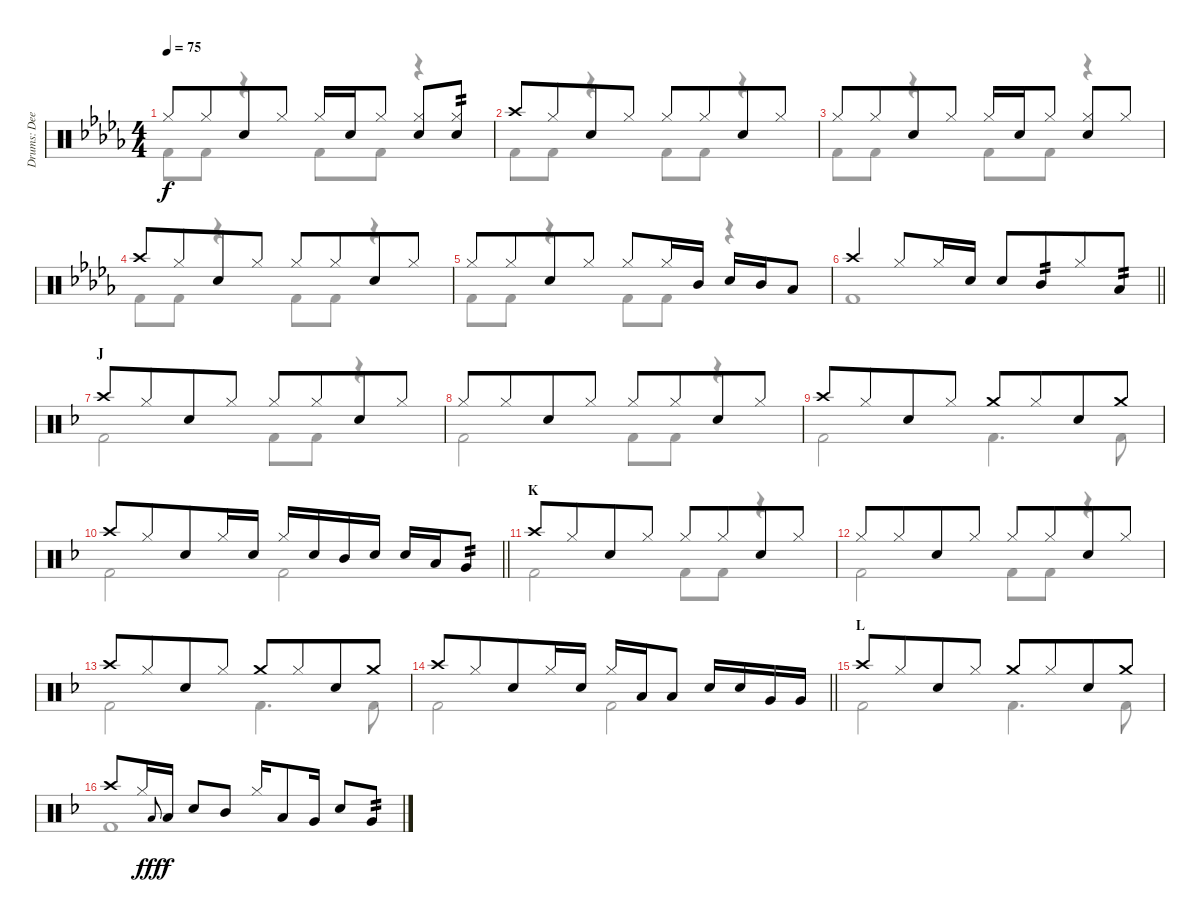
\track ("Drums: Deen" "Drums: Dee") {instrument percussion}
\staff {score}
\articulation defaults
\voice
\ts (4 4)
\tempo 75
\clef neutral
\ks db "Hi-Hat (closed)".8{dy f} "Hi-Hat (closed)".8{beam merge} "Snare (hit) 2".8 "Hi-Hat (closed)".8 "Hi-Hat (closed)".16{beam merge} "Snare (hit) 2".16 "Hi-Hat (closed)".8
("Hi-Hat (closed)" "Snare (hit) 2").8 ("Hi-Hat (closed)" "Snare (hit) 2").8{tp 2} |
"Crash high (hit)".8 "Hi-Hat (closed)".8{beam merge} "Snare (hit) 2".8 "Hi-Hat (closed)".8 "Hi-Hat (closed)".8 "Hi-Hat (closed)".8{beam merge} "Snare (hit) 2".8 "Hi-Hat (closed)".8 |
"Hi-Hat (closed)".8 "Hi-Hat (closed)".8{beam merge} "Snare (hit) 2".8 "Hi-Hat (closed)".8 "Hi-Hat (closed)".16{beam merge} "Snare (hit) 2".16 "Hi-Hat (closed)".8 ("Hi-Hat (closed)" "Snare (hit) 2").8 "Hi-Hat (closed)".8 |
"Crash high (hit)".8 "Hi-Hat (closed)".8{beam merge} "Snare (hit) 2".8 "Hi-Hat (closed)".8 "Hi-Hat (closed)".8 "Hi-Hat (closed)".8{beam merge} "Snare (hit) 2".8 "Hi-Hat (closed)".8 |
"Hi-Hat (closed)".8 "Hi-Hat (closed)".8{beam merge} "Snare (hit) 2".8 "Hi-Hat (closed)".8 "Hi-Hat (closed)".8{beam merge} "Hi-Hat (closed)".16 "Mid Tom (hit)".16 "Snare (hit) 2".16 "Mid Tom (hit)".16 "Low Tom (hit)".8 |
\barLineRight lightlight "Crash high (hit)".4 "Hi-Hat (closed)".8 "Hi-Hat (closed)".16 "Snare (hit) 2".16 "Snare (hit) 2".8 "Mid Tom (hit)".8{tp 2 beam merge} "Hi-Hat (closed)".8 "Low Tom (hit)".8{tp 2}
|
\section ("" "J")
\ks f "Crash high (hit)".8 "Hi-Hat (closed)".8{beam merge} "Snare (hit) 2".8 "Hi-Hat (closed)".8 "Hi-Hat (closed)".8 "Hi-Hat (closed)".8{beam merge} "Snare (hit) 2".8 "Hi-Hat (closed)".8
|
"Hi-Hat (closed)".8 "Hi-Hat (closed)".8{beam merge} "Snare (hit) 2".8 "Hi-Hat (closed)".8 "Hi-Hat (closed)".8 "Hi-Hat (closed)".8{beam merge} "Snare (hit) 2".8 "Hi-Hat (closed)".8 |
"Crash high (hit)".8 "Hi-Hat (closed)".8{beam merge} "Snare (hit) 2".8 "Hi-Hat (closed)".8 "Crash medium (hit)".8 "Hi-Hat (closed)".8{beam merge} "Snare (hit) 2".8 "Crash medium (hit)".8 |
\barLineRight lightlight "Crash high (hit)".8 "Hi-Hat (closed)".8{beam merge} "Snare (hit) 2".8 "Hi-Hat (closed)".16{beam merge} "Snare (hit) 2".16 "Hi-Hat (closed)".16 "Snare (hit) 2".16 "Mid Tom (hit)".16 "Snare (hit) 2".16 "Snare (hit) 2".16 "Low Tom (hit)".16 "Very Low Tom (hit)".8{tp 2}
|
\section ("" "K")
"Crash high (hit)".8 "Hi-Hat (closed)".8{beam merge} "Snare (hit) 2".8 "Hi-Hat (closed)".8 "Hi-Hat (closed)".8 "Hi-Hat (closed)".8{beam merge} "Snare (hit) 2".8 "Hi-Hat (closed)".8 |
"Hi-Hat (closed)".8 "Hi-Hat (closed)".8{beam merge} "Snare (hit) 2".8 "Hi-Hat (closed)".8 "Hi-Hat (closed)".8 "Hi-Hat (closed)".8{beam merge} "Snare (hit) 2".8 "Hi-Hat (closed)".8 |
"Crash high (hit)".8 "Hi-Hat (closed)".8{beam merge} "Snare (hit) 2".8 "Hi-Hat (closed)".8 "Crash medium (hit)".8 "Hi-Hat (closed)".8{beam merge} "Snare (hit) 2".8 "Crash medium (hit)".8 |
\barLineRight lightlight "Crash high (hit)".8 "Hi-Hat (closed)".8{beam merge} "Snare (hit) 2".8 "Hi-Hat (closed)".16{beam merge} "Snare (hit) 2".16 "Hi-Hat (closed)".16 "Low Tom (hit)".16 "Low Tom (hit)".8 "Snare (hit) 2".16 "Snare (hit) 2".16 "Very Low Tom (hit)".16 "Very Low Tom (hit)".16
|
\section ("" "L")
"Crash high (hit)".8 "Hi-Hat (closed)".8{beam merge} "Snare (hit) 2".8 "Hi-Hat (closed)".8 "Crash medium (hit)".8 "Hi-Hat (closed)".8{beam merge} "Snare (hit) 2".8 "Crash medium (hit)".8 |
"Crash high (hit)".8 "Hi-Hat (closed)".16 "Low Tom (hit)".8{gr onbeat dy fff beam merge} "Low Tom (hit)".16{dy f} "Snare (hit) 2".8{beam merge} "Mid Tom (hit)".8 "Hi-Hat (closed)".16 "Low Tom (hit)".8 "Very Low Tom (hit)".16 "Snare (hit) 2".8 "Very Low Tom (hit)".8{tp 2}
\voice
\clef neutral
\ottava regular
\simile none
\ks db "Kick (hit) 2".8{dy f} "Kick (hit) 2".8
r.4 "Kick (hit) 2".8 "Kick (hit) 2".8 r.4 |
"Kick (hit) 2".8 "Kick (hit) 2".8 r.4 "Kick (hit) 2".8 "Kick (hit) 2".8 r.4 |
"Kick (hit) 2".8 "Kick (hit) 2".8 r.4 "Kick (hit) 2".8 "Kick (hit) 2".8 r.4 |
"Kick (hit) 2".8 "Kick (hit) 2".8 r.4 "Kick (hit) 2".8 "Kick (hit) 2".8 r.4 |
"Kick (hit) 2".8 "Kick (hit) 2".8 r.4 "Kick (hit) 2".8 "Kick (hit) 2".8 r.4 |
\barLineRight lightlight "Kick (hit) 2".1
|
\ks f "Kick (hit) 2".2 "Kick (hit) 2".8 "Kick (hit) 2".8
r.4 |
"Kick (hit) 2".2 "Kick (hit) 2".8 "Kick (hit) 2".8 r.4 |
"Kick (hit) 2".2 "Kick (hit) 2".4{d} "Kick (hit) 2".8 |
\barLineRight lightlight "Kick (hit) 2".2 "Kick (hit) 2".2
|
"Kick (hit) 2".2 "Kick (hit) 2".8 "Kick (hit) 2".8 r.4 |
"Kick (hit) 2".2 "Kick (hit) 2".8 "Kick (hit) 2".8 r.4 |
"Kick (hit) 2".2 "Kick (hit) 2".4{d} "Kick (hit) 2".8 |
\barLineRight lightlight "Kick (hit) 2".2 "Kick (hit) 2".2
|
"Kick (hit) 2".2 "Kick (hit) 2".4{d} "Kick (hit) 2".8 |
"Kick (hit) 2".1
